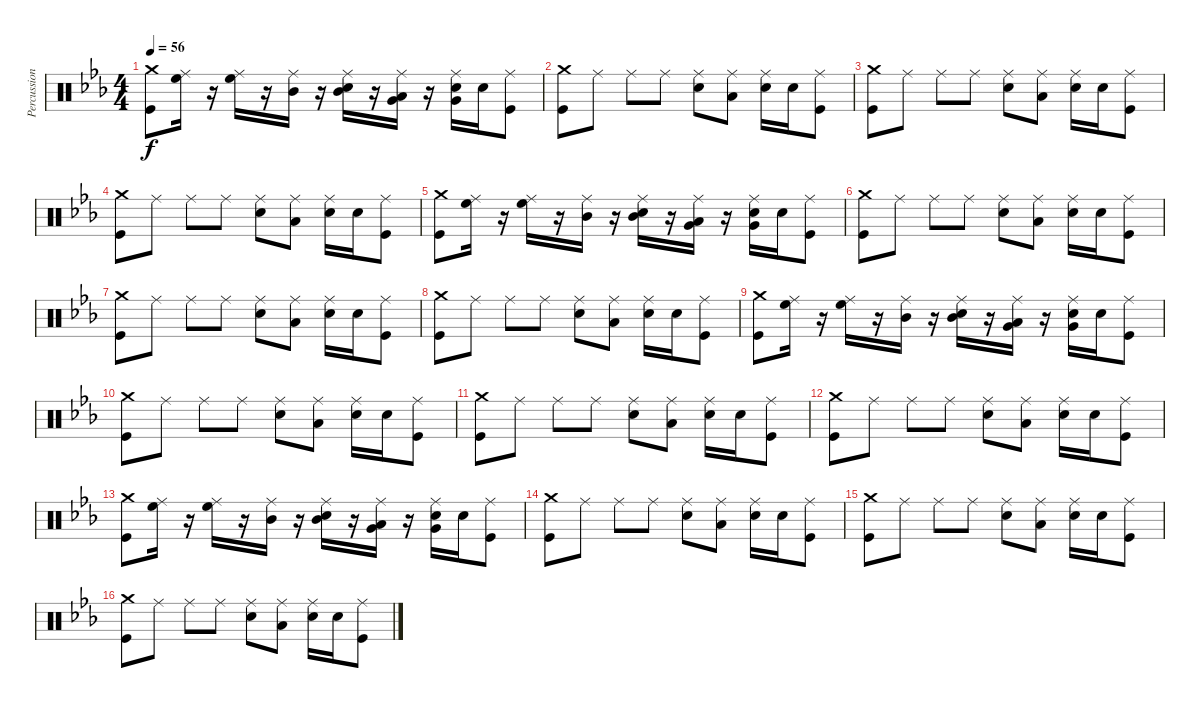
\track ("Percussion" "Percussion") {instrument percussion}
\staff {score}
\articulation defaults
\ts (4 4)
\tempo 56
\clef neutral
\ks eb
("Crash medium (hit)" "Kick (hit)").8{dy f} ("High Floor Tom (hit)" "Ride (middle)").16 r.16 ("High Floor Tom (hit)" "Ride (middle)").16 r.16 ("Mid Tom (hit)" "Ride (middle)").16 r.16 ("Mid Tom (hit)" "Snare (hit) 2" "Ride (middle)").16 r.16 ("Very Low Tom (hit)" "Low Floor Tom (hit)" "Ride (middle)").16 r.16 ("Very Low Tom (hit)" "Snare (hit) 2" "Ride (middle)").16 "Snare (hit) 2".16 ("Kick (hit)" "Ride (middle)").8 |
("Crash medium (hit)" "Kick (hit)").8 "Ride (middle)".8 "Ride (middle)".8 "Ride (middle)".8 ("Snare (hit) 2" "Ride (middle)").8 ("Low Floor Tom (hit)" "Ride (middle)").8 ("Snare (hit) 2" "Ride (middle)").16 "Snare (hit) 2".16 ("Kick (hit)" "Ride (middle)").8 |
("Crash medium (hit)" "Kick (hit)").8 "Ride (middle)".8 "Ride (middle)".8 "Ride (middle)".8 ("Snare (hit) 2" "Ride (middle)").8 ("Low Floor Tom (hit)" "Ride (middle)").8 ("Snare (hit) 2" "Ride (middle)").16 "Snare (hit) 2".16 ("Kick (hit)" "Ride (middle)").8 |
("Crash medium (hit)" "Kick (hit)").8 "Ride (middle)".8 "Ride (middle)".8 "Ride (middle)".8 ("Snare (hit) 2" "Ride (middle)").8 ("Low Floor Tom (hit)" "Ride (middle)").8 ("Snare (hit) 2" "Ride (middle)").16 "Snare (hit) 2".16 ("Kick (hit)" "Ride (middle)").8 |
("Crash medium (hit)" "Kick (hit)").8 ("High Floor Tom (hit)" "Ride (middle)").16 r.16 ("High Floor Tom (hit)" "Ride (middle)").16 r.16 ("Mid Tom (hit)" "Ride (middle)").16 r.16 ("Mid Tom (hit)" "Snare (hit) 2" "Ride (middle)").16 r.16 ("Very Low Tom (hit)" "Low Floor Tom (hit)" "Ride (middle)").16 r.16 ("Very Low Tom (hit)" "Snare (hit) 2" "Ride (middle)").16 "Snare (hit) 2".16 ("Kick (hit)" "Ride (middle)").8 |
("Crash medium (hit)" "Kick (hit)").8 "Ride (middle)".8 "Ride (middle)".8 "Ride (middle)".8 ("Snare (hit) 2" "Ride (middle)").8 ("Low Floor Tom (hit)" "Ride (middle)").8 ("Snare (hit) 2" "Ride (middle)").16 "Snare (hit) 2".16 ("Kick (hit)" "Ride (middle)").8 |
("Crash medium (hit)" "Kick (hit)").8 "Ride (middle)".8 "Ride (middle)".8 "Ride (middle)".8 ("Snare (hit) 2" "Ride (middle)").8 ("Low Floor Tom (hit)" "Ride (middle)").8 ("Snare (hit) 2" "Ride (middle)").16 "Snare (hit) 2".16 ("Kick (hit)" "Ride (middle)").8 |
("Crash medium (hit)" "Kick (hit)").8 "Ride (middle)".8 "Ride (middle)".8 "Ride (middle)".8 ("Snare (hit) 2" "Ride (middle)").8 ("Low Floor Tom (hit)" "Ride (middle)").8 ("Snare (hit) 2" "Ride (middle)").16 "Snare (hit) 2".16 ("Kick (hit)" "Ride (middle)").8 |
("Crash medium (hit)" "Kick (hit)").8 ("High Floor Tom (hit)" "Ride (middle)").16 r.16 ("High Floor Tom (hit)" "Ride (middle)").16 r.16 ("Mid Tom (hit)" "Ride (middle)").16 r.16 ("Mid Tom (hit)" "Snare (hit) 2" "Ride (middle)").16 r.16 ("Very Low Tom (hit)" "Low Floor Tom (hit)" "Ride (middle)").16 r.16 ("Very Low Tom (hit)" "Snare (hit) 2" "Ride (middle)").16 "Snare (hit) 2".16 ("Kick (hit)" "Ride (middle)").8 |
("Crash medium (hit)" "Kick (hit)").8 "Ride (middle)".8 "Ride (middle)".8 "Ride (middle)".8 ("Snare (hit) 2" "Ride (middle)").8 ("Low Floor Tom (hit)" "Ride (middle)").8 ("Snare (hit) 2" "Ride (middle)").16 "Snare (hit) 2".16 ("Kick (hit)" "Ride (middle)").8 |
("Crash medium (hit)" "Kick (hit)").8 "Ride (middle)".8 "Ride (middle)".8 "Ride (middle)".8 ("Snare (hit) 2" "Ride (middle)").8 ("Low Floor Tom (hit)" "Ride (middle)").8 ("Snare (hit) 2" "Ride (middle)").16 "Snare (hit) 2".16 ("Kick (hit)" "Ride (middle)").8 |
("Crash medium (hit)" "Kick (hit)").8 "Ride (middle)".8 "Ride (middle)".8 "Ride (middle)".8 ("Snare (hit) 2" "Ride (middle)").8 ("Low Floor Tom (hit)" "Ride (middle)").8 ("Snare (hit) 2" "Ride (middle)").16 "Snare (hit) 2".16 ("Kick (hit)" "Ride (middle)").8 |
("Crash medium (hit)" "Kick (hit)").8 ("High Floor Tom (hit)" "Ride (middle)").16 r.16 ("High Floor Tom (hit)" "Ride (middle)").16 r.16 ("Mid Tom (hit)" "Ride (middle)").16 r.16 ("Mid Tom (hit)" "Snare (hit) 2" "Ride (middle)").16 r.16 ("Very Low Tom (hit)" "Low Floor Tom (hit)" "Ride (middle)").16 r.16 ("Very Low Tom (hit)" "Snare (hit) 2" "Ride (middle)").16 "Snare (hit) 2".16 ("Kick (hit)" "Ride (middle)").8 |
("Crash medium (hit)" "Kick (hit)").8 "Ride (middle)".8 "Ride (middle)".8 "Ride (middle)".8 ("Snare (hit) 2" "Ride (middle)").8 ("Low Floor Tom (hit)" "Ride (middle)").8 ("Snare (hit) 2" "Ride (middle)").16 "Snare (hit) 2".16 ("Kick (hit)" "Ride (middle)").8 |
("Crash medium (hit)" "Kick (hit)").8 "Ride (middle)".8 "Ride (middle)".8 "Ride (middle)".8 ("Snare (hit) 2" "Ride (middle)").8 ("Low Floor Tom (hit)" "Ride (middle)").8 ("Snare (hit) 2" "Ride (middle)").16 "Snare (hit) 2".16 ("Kick (hit)" "Ride (middle)").8 |
("Crash medium (hit)" "Kick (hit)").8 "Ride (middle)".8 "Ride (middle)".8 "Ride (middle)".8 ("Snare (hit) 2" "Ride (middle)").8 ("Low Floor Tom (hit)" "Ride (middle)").8 ("Snare (hit) 2" "Ride (middle)").16 "Snare (hit) 2".16 ("Kick (hit)" "Ride (middle)").8
